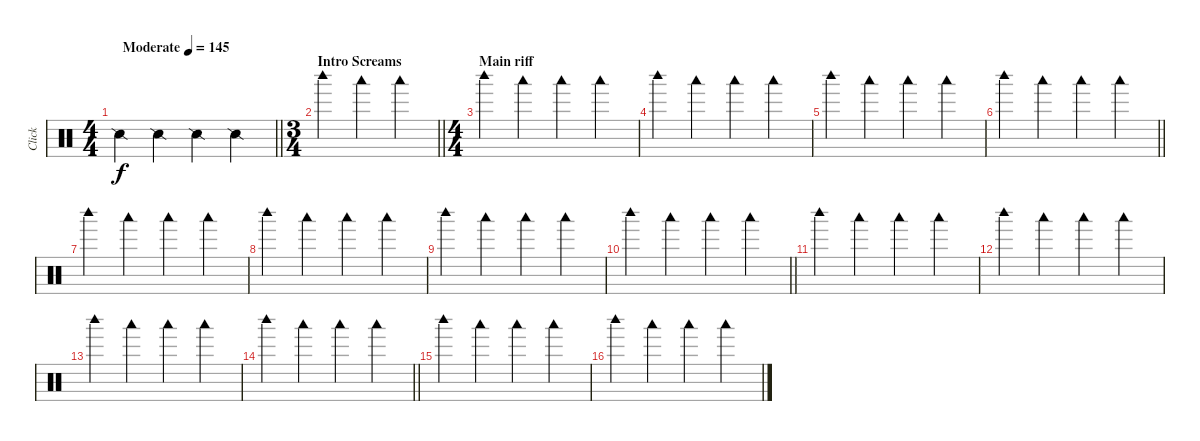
\track ("Click" "Click") {mute instrument percussion}
\staff {score}
\articulation defaults
\ts (4 4)
\tempo (145 "Moderate")
\clef neutral
\barLineRight lightlight
\ks c "Snare (side stick) 2".4{dy f} "Snare (side stick) 2".4 "Snare (side stick) 2".4 "Snare (side stick) 2".4
|
\ts (3 4)
\section ("" "Intro Screams")
\barLineRight lightlight "Woodblock high (hit)".4 "Woodblock low (hit)".4 "Woodblock low (hit)".4
|
\ts (4 4)
\section ("" "Main riff")
"Woodblock high (hit)".4 "Woodblock low (hit)".4 "Woodblock low (hit)".4 "Woodblock low (hit)".4 |
"Woodblock high (hit)".4 "Woodblock low (hit)".4 "Woodblock low (hit)".4 "Woodblock low (hit)".4 |
"Woodblock high (hit)".4 "Woodblock low (hit)".4 "Woodblock low (hit)".4 "Woodblock low (hit)".4 |
\barLineRight lightlight "Woodblock high (hit)".4 "Woodblock low (hit)".4 "Woodblock low (hit)".4 "Woodblock low (hit)".4
|
"Woodblock high (hit)".4 "Woodblock low (hit)".4 "Woodblock low (hit)".4 "Woodblock low (hit)".4 |
"Woodblock high (hit)".4 "Woodblock low (hit)".4 "Woodblock low (hit)".4 "Woodblock low (hit)".4 |
"Woodblock high (hit)".4 "Woodblock low (hit)".4 "Woodblock low (hit)".4 "Woodblock low (hit)".4 |
\barLineRight lightlight "Woodblock high (hit)".4 "Woodblock low (hit)".4 "Woodblock low (hit)".4 "Woodblock low (hit)".4
|
"Woodblock high (hit)".4 "Woodblock low (hit)".4 "Woodblock low (hit)".4 "Woodblock low (hit)".4 |
"Woodblock high (hit)".4 "Woodblock low (hit)".4 "Woodblock low (hit)".4 "Woodblock low (hit)".4 |
"Woodblock high (hit)".4 "Woodblock low (hit)".4 "Woodblock low (hit)".4 "Woodblock low (hit)".4 |
\barLineRight lightlight "Woodblock high (hit)".4 "Woodblock low (hit)".4 "Woodblock low (hit)".4 "Woodblock low (hit)".4
|
"Woodblock high (hit)".4 "Woodblock low (hit)".4 "Woodblock low (hit)".4 "Woodblock low (hit)".4 |
"Woodblock high (hit)".4 "Woodblock low (hit)".4 "Woodblock low (hit)".4 "Woodblock low (hit)".4
